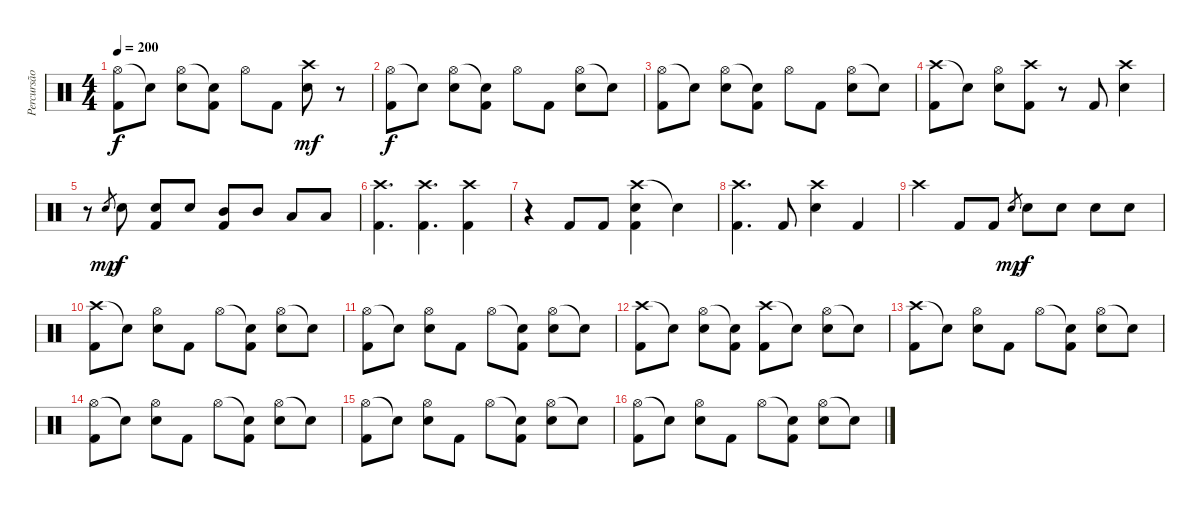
\track ("Percursão" "Percursão") {instrument percussion}
\staff {score}
\articulation defaults
\ts (4 4)
\tempo 200
\clef neutral
\ks c
("Hi-Hat (open)" "Kick (hit) 2").8{dy f} "Snare (hit)"{t}.8 ("Hi-Hat (open)" "Electric Snare (hit)").8 ("Snare (hit)"{t} "Kick (hit) 2").8 "Hi-Hat (open)".8 "Kick (hit) 2".8 ("Crash high (hit)" "Electric Snare (hit)").8{dy mf} r.8 |
("Hi-Hat (open)" "Kick (hit) 2").8{dy f} "Snare (hit)"{t}.8 ("Hi-Hat (open)" "Electric Snare (hit)").8 ("Snare (hit)"{t} "Kick (hit) 2").8 "Hi-Hat (open)".8 "Kick (hit) 2".8 ("Hi-Hat (open)" "Electric Snare (hit)").8 "Snare (hit)"{t}.8 |
("Hi-Hat (open)" "Kick (hit) 2").8 "Snare (hit)"{t}.8 ("Hi-Hat (open)" "Electric Snare (hit)").8 ("Snare (hit)"{t} "Kick (hit) 2").8 "Hi-Hat (open)".8 "Kick (hit) 2".8 ("Hi-Hat (open)" "Electric Snare (hit)").8 "Snare (hit)"{t}.8 |
("Crash high (hit)" "Kick (hit) 2").8 "Snare (hit)"{t}.8 ("Hi-Hat (open)" "Electric Snare (hit)").8 ("Crash high (hit)" "Kick (hit) 2").8 r.8 "Kick (hit) 2".8 ("Crash high (hit)" "Electric Snare (hit)").4 |
r.8 "Electric Snare (hit)".8{gr dy mp} "Electric Snare (hit)".8{dy f} ("Electric Snare (hit)" "Kick (hit) 2").8 "Electric Snare (hit)".8 ("Mid Tom (hit)" "Kick (hit) 2").8 "Mid Tom (hit)".8 "Low Tom (hit)".8 "Low Tom (hit)".8 |
("Crash high (hit)" "Kick (hit) 2").4{d} ("Crash high (hit)" "Kick (hit) 2").4{d} ("Crash high (hit)" "Kick (hit) 2").4 |
r.4 "Kick (hit) 2".8 "Kick (hit) 2".8 ("Crash high (hit)" "Electric Snare (hit)" "Kick (hit) 2").4 "Snare (hit)"{t}.4 |
("Crash high (hit)" "Kick (hit) 2").4{d} "Kick (hit) 2".8 ("Crash high (hit)" "Electric Snare (hit)").4 "Kick (hit) 2".4 |
"Crash high (hit)".4 "Kick (hit) 2".8 "Kick (hit) 2".8 "Electric Snare (hit)".8{gr dy mp} "Electric Snare (hit)".8{dy f} "Electric Snare (hit)".8 "Electric Snare (hit)".8 "Electric Snare (hit)".8 |
("Crash high (hit)" "Kick (hit) 2").8 "Snare (hit)"{t}.8 ("Hi-Hat (open)" "Electric Snare (hit)").8 "Kick (hit) 2".8 "Hi-Hat (open)".8 ("Snare (hit)"{t} "Kick (hit) 2").8 ("Hi-Hat (open)" "Electric Snare (hit)").8 "Snare (hit)"{t}.8 |
("Hi-Hat (open)" "Kick (hit) 2").8 "Snare (hit)"{t}.8 ("Hi-Hat (open)" "Electric Snare (hit)").8 "Kick (hit) 2".8 "Hi-Hat (open)".8 ("Snare (hit)"{t} "Kick (hit) 2").8 ("Hi-Hat (open)" "Electric Snare (hit)").8 "Snare (hit)"{t}.8 |
("Crash high (hit)" "Kick (hit) 2").8 "Snare (hit)"{t}.8 ("Hi-Hat (open)" "Electric Snare (hit)").8 ("Snare (hit)"{t} "Kick (hit) 2").8 ("Crash high (hit)" "Kick (hit) 2").8 "Snare (hit)"{t}.8 ("Hi-Hat (open)" "Electric Snare (hit)").8 "Snare (hit)"{t}.8 |
("Crash high (hit)" "Kick (hit) 2").8 "Snare (hit)"{t}.8 ("Hi-Hat (open)" "Electric Snare (hit)").8 "Kick (hit) 2".8 "Hi-Hat (open)".8 ("Snare (hit)"{t} "Kick (hit) 2").8 ("Hi-Hat (open)" "Electric Snare (hit)").8 "Snare (hit)"{t}.8 |
("Hi-Hat (open)" "Kick (hit) 2").8 "Snare (hit)"{t}.8 ("Hi-Hat (open)" "Electric Snare (hit)").8 "Kick (hit) 2".8 "Hi-Hat (open)".8 ("Snare (hit)"{t} "Kick (hit) 2").8 ("Hi-Hat (open)" "Electric Snare (hit)").8 "Snare (hit)"{t}.8 |
("Hi-Hat (open)" "Kick (hit) 2").8 "Snare (hit)"{t}.8 ("Hi-Hat (open)" "Electric Snare (hit)").8 "Kick (hit) 2".8 "Hi-Hat (open)".8 ("Snare (hit)"{t} "Kick (hit) 2").8 ("Hi-Hat (open)" "Electric Snare (hit)").8 "Snare (hit)"{t}.8 |
("Hi-Hat (open)" "Kick (hit) 2").8 "Snare (hit)"{t}.8 ("Hi-Hat (open)" "Electric Snare (hit)").8 "Kick (hit) 2".8 "Hi-Hat (open)".8 ("Snare (hit)"{t} "Kick (hit) 2").8 ("Hi-Hat (open)" "Electric Snare (hit)").8 "Snare (hit)"{t}.8
